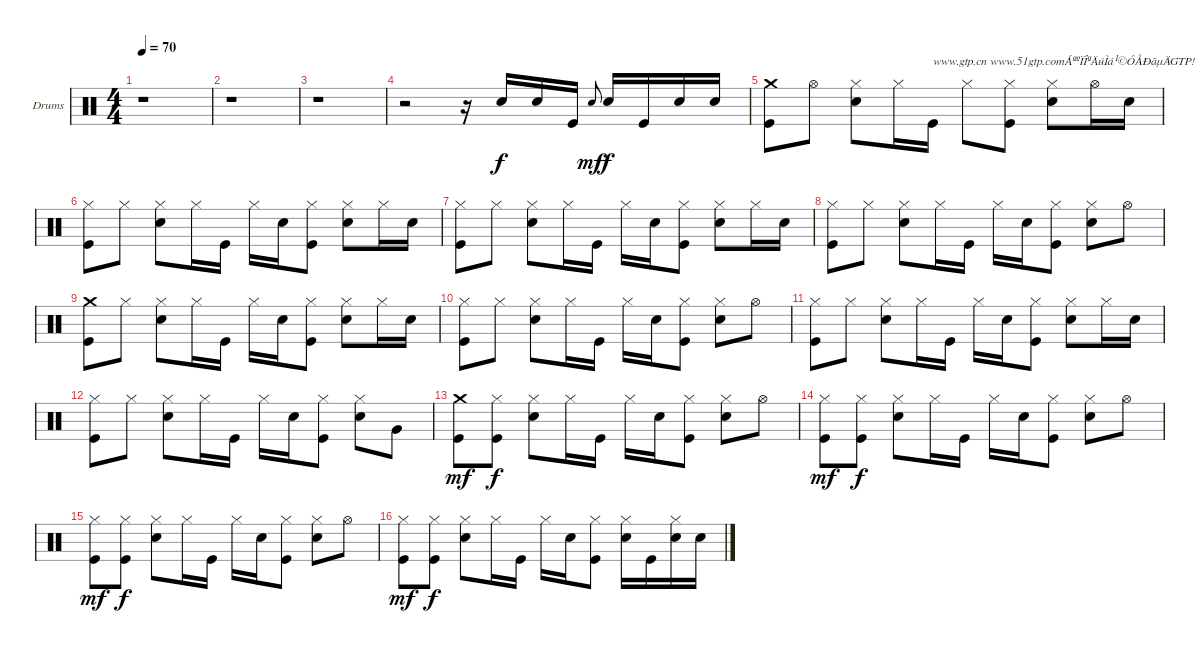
\bracketExtendMode groupsimilarinstruments
\firstSystemTrackNameOrientation horizontal
\otherSystemsTrackNameOrientation horizontal
\track ("Drumkit" "Drums") {instrument percussion}
\staff {score}
\articulation defaults
\ts (4 4)
\beaming (8 2 2 2 2)
\tempo 70
\clef neutral
\ks c
r.1{dy f} |
r.1 |
r.1 |
r.2 r.16 "Snare (hit) 2".16 "Snare (hit) 2".16 "Kick (hit)".16 "Snare (hit) 2".8{gr onbeat dy mf} "Snare (hit) 2".16{dy f} "Kick (hit)".16 "Snare (hit) 2".16 "Snare (hit) 2".16 |
("Crash medium (hit)" "Kick (hit)").8 "Hi-Hat (open)".8 ("Hi-Hat (closed)" "Snare (hit) 2").8 "Hi-Hat (closed)".16 "Kick (hit)".16{txt "www.gtp.cn www.51gtp.comÁªºÏÎªÄúÌá¹©ÓÅÐãµÄGTP!"} "Hi-Hat (closed)".8 ("Hi-Hat (closed)" "Kick (hit)").8 ("Hi-Hat (closed)" "Snare (hit) 2").8 "Hi-Hat (open)".16 "Snare (hit) 2".16 |
("Hi-Hat (closed)" "Kick (hit)").8 "Hi-Hat (closed)".8 ("Hi-Hat (closed)" "Snare (hit) 2").8 "Hi-Hat (closed)".16 "Kick (hit)".16 "Hi-Hat (closed)".16 "Snare (hit) 2".16 ("Hi-Hat (closed)" "Kick (hit)").8 ("Hi-Hat (closed)" "Snare (hit) 2").8 "Hi-Hat (closed)".16 "Snare (hit) 2".16 |
("Hi-Hat (closed)" "Kick (hit)").8 "Hi-Hat (closed)".8 ("Hi-Hat (closed)" "Snare (hit) 2").8 "Hi-Hat (closed)".16 "Kick (hit)".16 "Hi-Hat (closed)".16 "Snare (hit) 2".16 ("Hi-Hat (closed)" "Kick (hit)").8 ("Hi-Hat (closed)" "Snare (hit) 2").8 "Hi-Hat (closed)".16 "Snare (hit) 2".16 |
("Hi-Hat (closed)" "Kick (hit)").8 "Hi-Hat (closed)".8 ("Hi-Hat (closed)" "Snare (hit) 2").8 "Hi-Hat (closed)".16 "Kick (hit)".16 "Hi-Hat (closed)".16 "Snare (hit) 2".16 ("Hi-Hat (closed)" "Kick (hit)").8 ("Hi-Hat (closed)" "Snare (hit) 2").8 "Hi-Hat (open)".8 |
("Crash medium (hit)" "Kick (hit)").8 "Hi-Hat (closed)".8 ("Hi-Hat (closed)" "Snare (hit) 2").8 "Hi-Hat (closed)".16 "Kick (hit)".16 "Hi-Hat (closed)".16 "Snare (hit) 2".16 ("Hi-Hat (closed)" "Kick (hit)").8 ("Hi-Hat (closed)" "Snare (hit) 2").8 "Hi-Hat (closed)".16 "Snare (hit) 2".16 |
("Hi-Hat (closed)" "Kick (hit)").8 "Hi-Hat (closed)".8 ("Hi-Hat (closed)" "Snare (hit) 2").8 "Hi-Hat (closed)".16 "Kick (hit)".16 "Hi-Hat (closed)".16 "Snare (hit) 2".16 ("Hi-Hat (closed)" "Kick (hit)").8 ("Hi-Hat (closed)" "Snare (hit) 2").8 "Hi-Hat (open)".8 |
("Hi-Hat (closed)" "Kick (hit)").8 "Hi-Hat (closed)".8 ("Hi-Hat (closed)" "Snare (hit) 2").8 "Hi-Hat (closed)".16 "Kick (hit)".16 "Hi-Hat (closed)".16 "Snare (hit) 2".16 ("Hi-Hat (closed)" "Kick (hit)").8 ("Hi-Hat (closed)" "Snare (hit) 2").8 "Hi-Hat (closed)".16 "Snare (hit) 2".16 |
("Hi-Hat (closed)" "Kick (hit)").8 "Hi-Hat (closed)".8 ("Hi-Hat (closed)" "Snare (hit) 2").8 "Hi-Hat (closed)".16 "Kick (hit)".16 "Hi-Hat (closed)".16 "Snare (hit) 2".16 ("Hi-Hat (closed)" "Kick (hit)").8 ("Hi-Hat (closed)" "Snare (hit) 2").8 "Very Low Tom (hit)".8 |
("Crash medium (hit)" "Kick (hit)").8{dy mf} ("Hi-Hat (closed)" "Kick (hit)").8{dy f} ("Hi-Hat (closed)" "Snare (hit) 2").8 "Hi-Hat (closed)".16 "Kick (hit)".16 "Hi-Hat (closed)".16 "Snare (hit) 2".16 ("Hi-Hat (closed)" "Kick (hit)").8 ("Hi-Hat (closed)" "Snare (hit) 2").8 "Hi-Hat (open)".8 |
("Hi-Hat (closed)" "Kick (hit)").8{dy mf} ("Hi-Hat (closed)" "Kick (hit)").8{dy f} ("Hi-Hat (closed)" "Snare (hit) 2").8 "Hi-Hat (closed)".16 "Kick (hit)".16 "Hi-Hat (closed)".16 "Snare (hit) 2".16 ("Hi-Hat (closed)" "Kick (hit)").8 ("Hi-Hat (closed)" "Snare (hit) 2").8 "Hi-Hat (open)".8 |
("Hi-Hat (closed)" "Kick (hit)").8{dy mf} ("Hi-Hat (closed)" "Kick (hit)").8{dy f} ("Hi-Hat (closed)" "Snare (hit) 2").8 "Hi-Hat (closed)".16 "Kick (hit)".16 "Hi-Hat (closed)".16 "Snare (hit) 2".16 ("Hi-Hat (closed)" "Kick (hit)").8 ("Hi-Hat (closed)" "Snare (hit) 2").8 "Hi-Hat (open)".8 |
("Hi-Hat (closed)" "Kick (hit)").8{dy mf} ("Hi-Hat (closed)" "Kick (hit)").8{dy f} ("Hi-Hat (closed)" "Snare (hit) 2").8 "Hi-Hat (closed)".16 "Kick (hit)".16 "Hi-Hat (closed)".16 "Snare (hit) 2".16 ("Hi-Hat (closed)" "Kick (hit)").8 ("Hi-Hat (closed)" "Snare (hit) 2").16 "Kick (hit)".16 ("Hi-Hat (closed)" "Snare (hit) 2").16 "Snare (hit) 2".16
